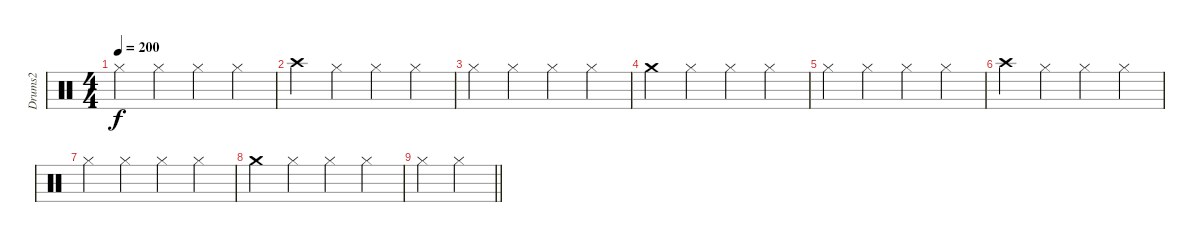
\track ("Drums2" "Drums2") {instrument percussion}
\staff {score}
\articulation defaults
\ts (4 4)
\tempo 200
\clef neutral
\ks c "Hi-Hat (closed)".4{dy f} "Hi-Hat (closed)".4 "Hi-Hat (closed)".4 "Hi-Hat (closed)".4
|
"Crash high (hit)".4 "Hi-Hat (closed)".4 "Hi-Hat (closed)".4 "Hi-Hat (closed)".4 |
"Hi-Hat (closed)".4 "Hi-Hat (closed)".4 "Hi-Hat (closed)".4 "Hi-Hat (closed)".4 |
"Crash medium (hit)".4 "Hi-Hat (closed)".4 "Hi-Hat (closed)".4 "Hi-Hat (closed)".4 |
"Hi-Hat (closed)".4 "Hi-Hat (closed)".4 "Hi-Hat (closed)".4 "Hi-Hat (closed)".4 |
"Crash high (hit)".4 "Hi-Hat (closed)".4 "Hi-Hat (closed)".4 "Hi-Hat (closed)".4 |
"Hi-Hat (closed)".4 "Hi-Hat (closed)".4 "Hi-Hat (closed)".4 "Hi-Hat (closed)".4 |
"Crash medium (hit)".4 "Hi-Hat (closed)".4 "Hi-Hat (closed)".4 "Hi-Hat (closed)".4 |
\barLineRight lightlight "Hi-Hat (closed)".4 "Hi-Hat (closed)".4
